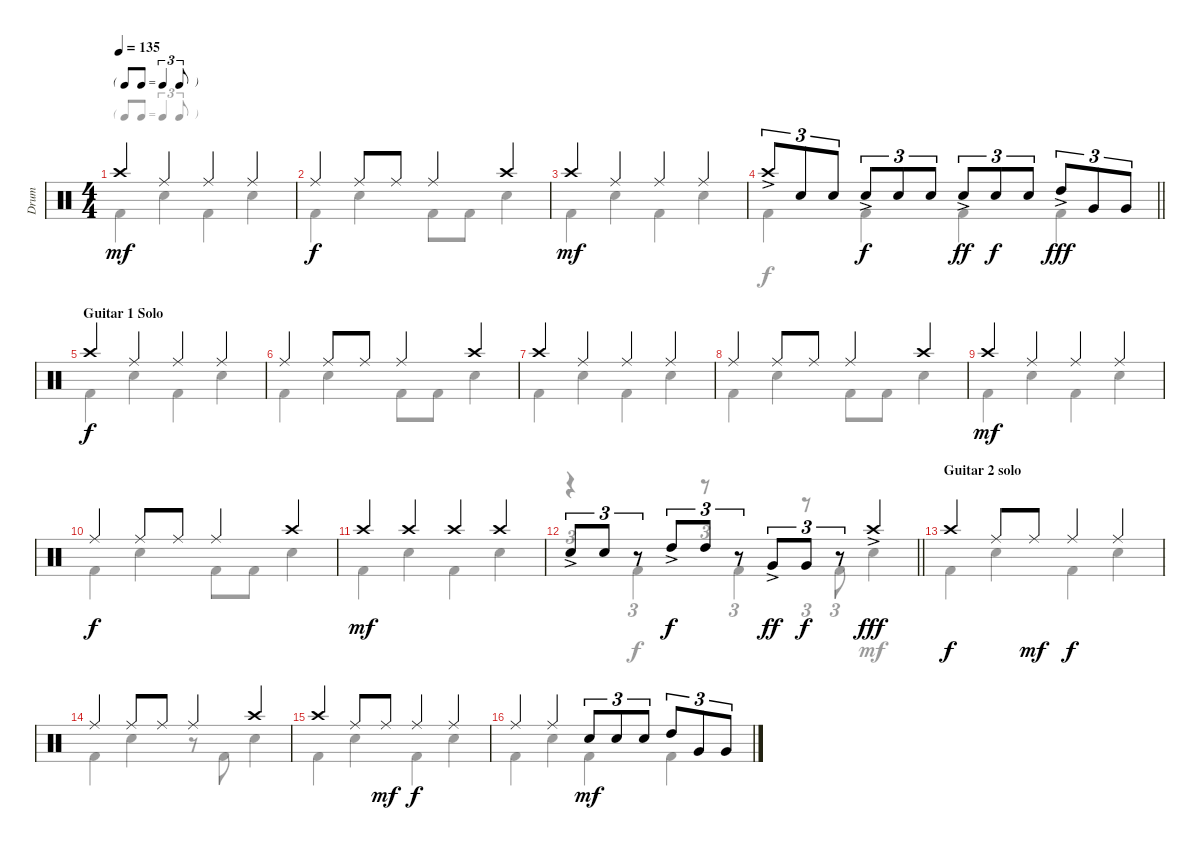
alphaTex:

\track ("Drum" "Drum") {instrument percussion}
\staff {score}
\articulation defaults
\voice
\ts (4 4)
\tf triplet8th
\tempo 135
\clef neutral
\ks c "Crash high (hit)".4{dy mf} "Ride (middle)".4 "Ride (middle)".4 "Ride (middle)".4
|
"Ride (middle)".4{dy f} "Ride (middle)".8 "Ride (middle)".8 "Ride (middle)".4 "Crash high (hit)".4 |
"Crash high (hit)".4{dy mf} "Ride (middle)".4 "Ride (middle)".4 "Ride (middle)".4 |
\barLineRight lightlight "Crash high (hit)"{ac}.8{tu (3 2)} "Snare (hit) 2".8{tu (3 2)} "Snare (hit) 2".8{tu (3 2)} "Snare (hit) 2"{ac}.8{tu (3 2) dy f} "Snare (hit) 2".8{tu (3 2)} "Snare (hit) 2".8{tu (3 2)} "Snare (hit) 2"{ac}.8{tu (3 2) dy ff} "Snare (hit) 2".8{tu (3 2) dy f} "Snare (hit) 2".8{tu (3 2)} "High Tom (hit)"{ac}.8{tu (3 2) dy fff} "Very Low Tom (hit)".8{tu (3 2)} "Very Low Tom (hit)".8{tu (3 2)}
|
\section ("" "Guitar 1 Solo")
"Crash high (hit)".4{dy f} "Ride (middle)".4 "Ride (middle)".4 "Ride (middle)".4 |
"Ride (middle)".4 "Ride (middle)".8 "Ride (middle)".8 "Ride (middle)".4 "Crash high (hit)".4 |
"Crash high (hit)".4 "Ride (middle)".4 "Ride (middle)".4 "Ride (middle)".4 |
"Ride (middle)".4 "Ride (middle)".8 "Ride (middle)".8 "Ride (middle)".4 "Crash high (hit)".4 |
"Crash high (hit)".4{dy mf} "Ride (middle)".4 "Ride (middle)".4 "Ride (middle)".4 |
"Ride (middle)".4{dy f} "Ride (middle)".8 "Ride (middle)".8 "Ride (middle)".4 "Crash high (hit)".4 |
"Crash high (hit)".4{dy mf} "Crash high (hit)".4 "Crash high (hit)".4 "Crash high (hit)".4 |
\barLineRight lightlight "Snare (hit) 2"{ac}.8{tu (3 2)} "Snare (hit) 2".8{tu (3 2)}
r.8{tu (3 2)} "High Tom (hit)"{ac}.8{tu (3 2) dy f} "High Tom (hit)".8{tu (3 2)} r.8{tu (3 2)} "Very Low Tom (hit)"{ac}.8{tu (3 2) dy ff} "Very Low Tom (hit)".8{tu (3 2) dy f} r.8{tu (3 2)} "Crash high (hit)"{ac}.4{dy fff} |
\section ("" "Guitar 2 solo")
"Crash high (hit)".4{dy f} "Ride (middle)".8 "Ride (middle)".8{dy mf} "Ride (middle)".4{dy f} "Ride (middle)".4 |
"Ride (middle)".4 "Ride (middle)".8 "Ride (middle)".8 "Ride (middle)".4 "Crash high (hit)".4 |
"Crash high (hit)".4 "Ride (middle)".8 "Ride (middle)".8{dy mf} "Ride (middle)".4{dy f} "Ride (middle)".4 |
"Ride (middle)".4 "Ride (middle)".4 "Snare (hit) 2".8{tu (3 2) dy mf} "Snare (hit) 2".8{tu (3 2)} "Snare (hit) 2".8{tu (3 2)} "High Tom (hit)".8{tu (3 2)} "Very Low Tom (hit)".8{tu (3 2)} "Very Low Tom (hit)".8{tu (3 2)}
\voice
\clef neutral
\ottava regular
\simile none
\ks c "Kick (hit) 2".4{dy mf} "Snare (hit) 2".4 "Kick (hit) 2".4 "Snare (hit) 2".4
|
"Kick (hit) 2".4{dy f} "Snare (hit) 2".4 "Kick (hit) 2".8 "Kick (hit) 2".8 "Snare (hit) 2".4 |
"Kick (hit) 2".4{dy mf} "Snare (hit) 2".4 "Kick (hit) 2".4 "Snare (hit) 2".4 |
\barLineRight lightlight "Kick (hit) 2".4{dy f} "Kick (hit) 2".4 "Kick (hit) 2".4 "Kick (hit) 2".4
|
"Kick (hit) 2".4 "Snare (hit) 2".4 "Kick (hit) 2".4 "Snare (hit) 2".4 |
"Kick (hit) 2".4 "Snare (hit) 2".4 "Kick (hit) 2".8 "Kick (hit) 2".8 "Snare (hit) 2".4 |
"Kick (hit) 2".4 "Snare (hit) 2".4 "Kick (hit) 2".4 "Snare (hit) 2".4 |
"Kick (hit) 2".4 "Snare (hit) 2".4 "Kick (hit) 2".8 "Kick (hit) 2".8 "Snare (hit) 2".4 |
"Kick (hit) 2".4{dy mf} "Snare (hit) 2".4 "Kick (hit) 2".4 "Snare (hit) 2".4 |
"Kick (hit) 2".4{dy f} "Snare (hit) 2".4 "Kick (hit) 2".8 "Kick (hit) 2".8 "Snare (hit) 2".4 |
"Kick (hit) 2".4{dy mf} "Snare (hit) 2".4 "Kick (hit) 2".4 "Snare (hit) 2".4 |
\barLineRight lightlight
r.4{tu (3 2)} "Kick (hit) 2".4{tu (3 2) dy f} r.8{tu (3 2)} "Kick (hit) 2".4{tu (3 2)} r.8{tu (3 2)} "Kick (hit) 2".8{tu (3 2)} "Snare (hit) 2".4{dy mf} |
"Kick (hit) 2".4{dy f} "Snare (hit) 2".4 "Kick (hit) 2".4 "Snare (hit) 2".4 |
"Kick (hit) 2".4 "Snare (hit) 2".4 r.8 "Kick (hit) 2".8 "Snare (hit) 2".4 |
"Kick (hit) 2".4 "Snare (hit) 2".4 "Kick (hit) 2".4 "Snare (hit) 2".4 |
"Kick (hit) 2".4 "Snare (hit) 2".4 "Kick (hit) 2".4{dy mf} "Kick (hit) 2".4
